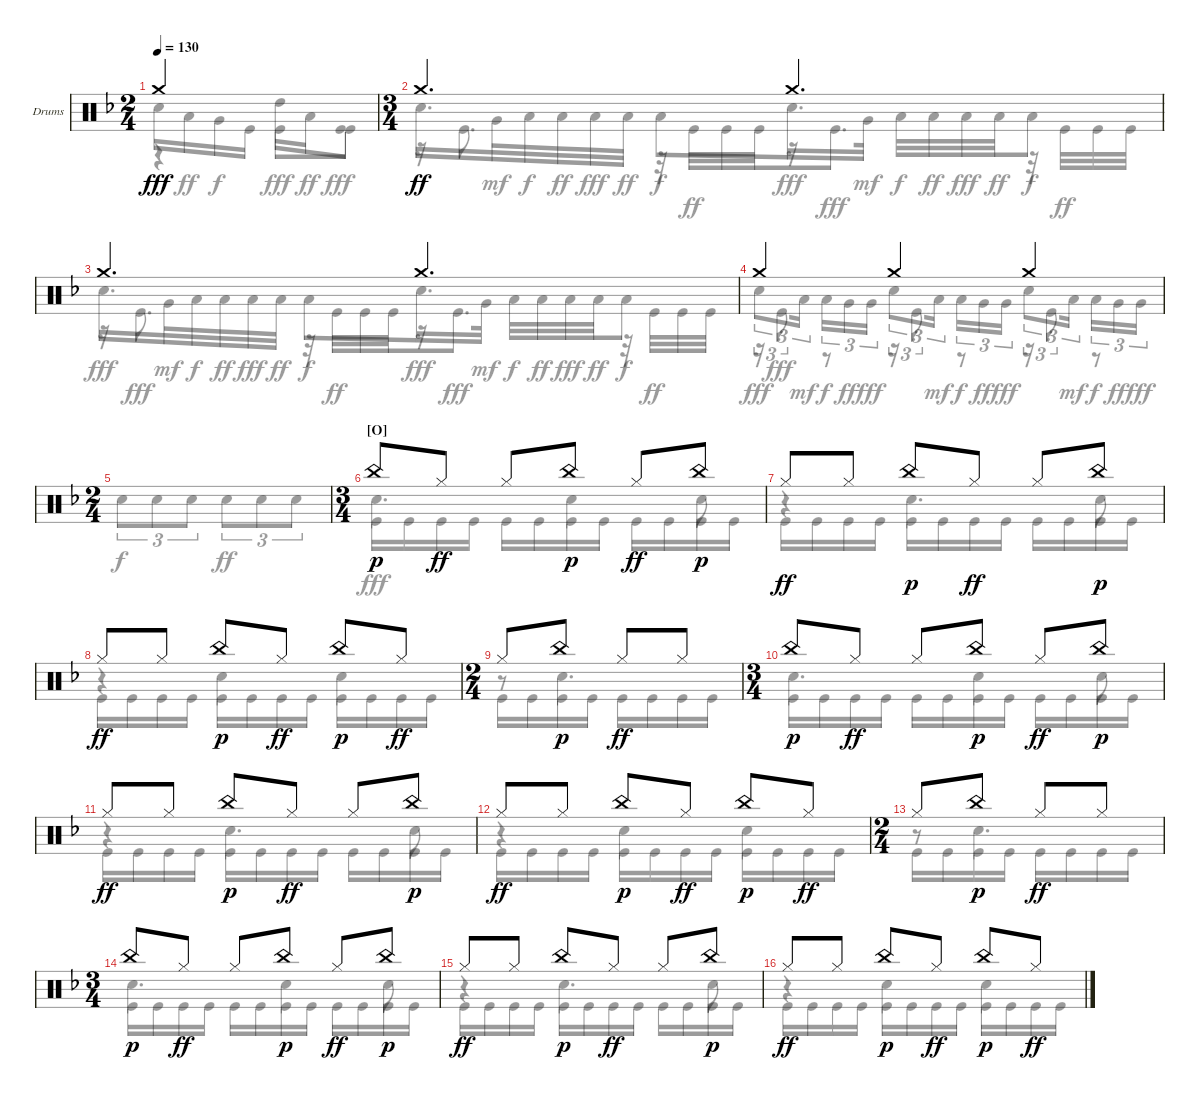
\defaultSystemsLayout 4
\bracketExtendMode groupsimilarinstruments
\firstSystemTrackNameOrientation horizontal
\otherSystemsTrackNameOrientation horizontal
\track ("Drumkit" "Drums") {instrument percussion}
\staff {score}
\articulation defaults
\voice
\ts (2 4)
\tempo 130
\clef neutral
\ks f "Crash medium (hit)".2{dy fff}
|
\ts (3 4)
"Crash medium (hit)".4{d dy ff} "Crash medium (hit)".4{d} |
"Crash medium (hit)".4{d} "Crash medium (hit)".4{d} |
"Crash medium (hit)".4 "Crash medium (hit)".4 "Crash medium (hit)".4 |
\ts (2 4)
|
\ts (3 4)
\section ("O" "")
"China (hit)".8{dy p} "Hi-Hat (closed)".8{dy ff} "Hi-Hat (closed)".8 "China (hit)".8{dy p} "Hi-Hat (closed)".8{dy ff} "China (hit)".8{dy p} |
"Hi-Hat (closed)".8{dy ff} "Hi-Hat (closed)".8 "China (hit)".8{dy p} "Hi-Hat (closed)".8{dy ff} "Hi-Hat (closed)".8 "China (hit)".8{dy p} |
"Hi-Hat (closed)".8{dy ff} "Hi-Hat (closed)".8 "China (hit)".8{dy p} "Hi-Hat (closed)".8{dy ff} "China (hit)".8{dy p} "Hi-Hat (closed)".8{dy ff} |
\ts (2 4)
"Hi-Hat (closed)".8 "China (hit)".8{dy p} "Hi-Hat (closed)".8{dy ff} "Hi-Hat (closed)".8 |
\ts (3 4)
"China (hit)".8{dy p} "Hi-Hat (closed)".8{dy ff} "Hi-Hat (closed)".8 "China (hit)".8{dy p} "Hi-Hat (closed)".8{dy ff} "China (hit)".8{dy p} |
"Hi-Hat (closed)".8{dy ff} "Hi-Hat (closed)".8 "China (hit)".8{dy p} "Hi-Hat (closed)".8{dy ff} "Hi-Hat (closed)".8 "China (hit)".8{dy p} |
"Hi-Hat (closed)".8{dy ff} "Hi-Hat (closed)".8 "China (hit)".8{dy p} "Hi-Hat (closed)".8{dy ff} "China (hit)".8{dy p} "Hi-Hat (closed)".8{dy ff} |
\ts (2 4)
"Hi-Hat (closed)".8 "China (hit)".8{dy p} "Hi-Hat (closed)".8{dy ff} "Hi-Hat (closed)".8 |
\ts (3 4)
"China (hit)".8{dy p} "Hi-Hat (closed)".8{dy ff} "Hi-Hat (closed)".8 "China (hit)".8{dy p} "Hi-Hat (closed)".8{dy ff} "China (hit)".8{dy p} |
"Hi-Hat (closed)".8{dy ff} "Hi-Hat (closed)".8 "China (hit)".8{dy p} "Hi-Hat (closed)".8{dy ff} "Hi-Hat (closed)".8 "China (hit)".8{dy p} |
"Hi-Hat (closed)".8{dy ff} "Hi-Hat (closed)".8 "China (hit)".8{dy p} "Hi-Hat (closed)".8{dy ff} "China (hit)".8{dy p} "Hi-Hat (closed)".8{dy ff}
\voice
\clef neutral
\ottava regular
\simile none
\ks f "Snare (hit) 2".16{dy fff} "Low Tom (hit)".16{dy ff} "Very Low Tom (hit)".16{dy f} "Kick (hit)".16 "High Tom (hit)".16{dy fff} "Low Tom (hit)".16{dy ff} "Kick (hit)".8{dy fff}
|
"Snare (hit) 2".16{d} "Very Low Tom (hit)".32{dy mf} "Low Tom (hit)".32{dy f} "Low Tom (hit)".32{dy ff} "Low Tom (hit)".32{dy fff} "Low Tom (hit)".32{dy ff} "Low Tom (hit)".8{dy f} "Snare (hit) 2".16{d dy fff} "Very Low Tom (hit)".32{dy mf} "Low Tom (hit)".32{dy f} "Low Tom (hit)".32{dy ff} "Low Tom (hit)".32{dy fff} "Low Tom (hit)".32{dy ff} "Low Tom (hit)".8{dy f} |
"Snare (hit) 2".16{d dy fff} "Very Low Tom (hit)".32{dy mf} "Low Tom (hit)".32{dy f} "Low Tom (hit)".32{dy ff} "Low Tom (hit)".32{dy fff} "Low Tom (hit)".32{dy ff} "Low Tom (hit)".8{dy f} "Snare (hit) 2".16{d dy fff} "Very Low Tom (hit)".32{dy mf} "Low Tom (hit)".32{dy f} "Low Tom (hit)".32{dy ff} "Low Tom (hit)".32{dy fff} "Low Tom (hit)".32{dy ff} "Low Tom (hit)".8{dy f} |
"Snare (hit) 2".8{tu (3 2) dy fff} "Low Tom (hit)".16{tu (3 2) dy mf} "Low Tom (hit)".16{tu (3 2) dy f} "Very Low Tom (hit)".16{tu (3 2) dy ff} "Very Low Tom (hit)".16{tu (3 2) dy fff} "Snare (hit) 2".8{tu (3 2)} "Low Tom (hit)".16{tu (3 2) dy mf} "Low Tom (hit)".16{tu (3 2) dy f} "Very Low Tom (hit)".16{tu (3 2) dy ff} "Very Low Tom (hit)".16{tu (3 2) dy fff} "Snare (hit) 2".8{tu (3 2)} "Low Tom (hit)".16{tu (3 2) dy mf} "Low Tom (hit)".16{tu (3 2) dy f} "Very Low Tom (hit)".16{tu (3 2) dy ff} "Very Low Tom (hit)".16{tu (3 2) dy fff} |
"Snare (hit) 2".8{tu (3 2) dy f} "Snare (hit) 2".8{tu (3 2)} "Snare (hit) 2".8{tu (3 2)} "Snare (hit) 2".8{tu (3 2) dy ff} "Snare (hit) 2".8{tu (3 2)} "Snare (hit) 2".8{tu (3 2)} |
"Snare (hit) 2".4{d dy fff} "Snare (hit) 2".4 "Snare (hit) 2".8 |
r.4 "Snare (hit) 2".4{d} "Snare (hit) 2".8 |
r.4 "Snare (hit) 2".4 "Snare (hit) 2".4 |
r.8 "Snare (hit) 2".4{d} |
"Snare (hit) 2".4{d} "Snare (hit) 2".4 "Snare (hit) 2".8 |
r.4 "Snare (hit) 2".4{d} "Snare (hit) 2".8 |
r.4 "Snare (hit) 2".4 "Snare (hit) 2".4 |
r.8 "Snare (hit) 2".4{d} |
"Snare (hit) 2".4{d} "Snare (hit) 2".4 "Snare (hit) 2".8 |
r.4 "Snare (hit) 2".4{d} "Snare (hit) 2".8 |
r.4 "Snare (hit) 2".4 "Snare (hit) 2".4
\voice
\clef neutral
\ottava regular
\simile none
\ks f
r.4{dy ff} "Kick (hit)".8{dy fff} "Kick (hit)".8 |
r.16 "Kick (hit)".8{d} r.32 "Kick (hit)".32{dy ff} "Kick (hit)".32 "Kick (hit)".32 r.16 "Kick (hit)".8{d dy fff} r.32 "Kick (hit)".32{dy ff} "Kick (hit)".32 "Kick (hit)".32 |
r.16 "Kick (hit)".8{d dy fff} r.32 "Kick (hit)".32{dy ff} "Kick (hit)".32 "Kick (hit)".32 r.16 "Kick (hit)".8{d dy fff} r.32 "Kick (hit)".32{dy ff} "Kick (hit)".32 "Kick (hit)".32 |
r.16{tu (3 2)} "Kick (hit)".8{tu (3 2) dy fff} r.8 r.16{tu (3 2)} "Kick (hit)".8{tu (3 2)} r.8 r.16{tu (3 2)} "Kick (hit)".8{tu (3 2)} r.8 |
|
"Kick (hit)".16 "Kick (hit)".16 "Kick (hit)".16 "Kick (hit)".16 "Kick (hit)".16 "Kick (hit)".16 "Kick (hit)".16 "Kick (hit)".16 "Kick (hit)".16 "Kick (hit)".16 "Kick (hit)".16 "Kick (hit)".16 |
"Kick (hit)".16 "Kick (hit)".16 "Kick (hit)".16 "Kick (hit)".16 "Kick (hit)".16 "Kick (hit)".16 "Kick (hit)".16 "Kick (hit)".16 "Kick (hit)".16 "Kick (hit)".16 "Kick (hit)".16 "Kick (hit)".16 |
"Kick (hit)".16 "Kick (hit)".16 "Kick (hit)".16 "Kick (hit)".16 "Kick (hit)".16 "Kick (hit)".16 "Kick (hit)".16 "Kick (hit)".16 "Kick (hit)".16 "Kick (hit)".16 "Kick (hit)".16 "Kick (hit)".16 |
"Kick (hit)".16 "Kick (hit)".16 "Kick (hit)".16 "Kick (hit)".16 "Kick (hit)".16 "Kick (hit)".16 "Kick (hit)".16 "Kick (hit)".16 |
"Kick (hit)".16 "Kick (hit)".16 "Kick (hit)".16 "Kick (hit)".16 "Kick (hit)".16 "Kick (hit)".16 "Kick (hit)".16 "Kick (hit)".16 "Kick (hit)".16 "Kick (hit)".16 "Kick (hit)".16 "Kick (hit)".16 |
"Kick (hit)".16 "Kick (hit)".16 "Kick (hit)".16 "Kick (hit)".16 "Kick (hit)".16 "Kick (hit)".16 "Kick (hit)".16 "Kick (hit)".16 "Kick (hit)".16 "Kick (hit)".16 "Kick (hit)".16 "Kick (hit)".16 |
"Kick (hit)".16 "Kick (hit)".16 "Kick (hit)".16 "Kick (hit)".16 "Kick (hit)".16 "Kick (hit)".16 "Kick (hit)".16 "Kick (hit)".16 "Kick (hit)".16 "Kick (hit)".16 "Kick (hit)".16 "Kick (hit)".16 |
"Kick (hit)".16 "Kick (hit)".16 "Kick (hit)".16 "Kick (hit)".16 "Kick (hit)".16 "Kick (hit)".16 "Kick (hit)".16 "Kick (hit)".16 |
"Kick (hit)".16 "Kick (hit)".16 "Kick (hit)".16 "Kick (hit)".16 "Kick (hit)".16 "Kick (hit)".16 "Kick (hit)".16 "Kick (hit)".16 "Kick (hit)".16 "Kick (hit)".16 "Kick (hit)".16 "Kick (hit)".16 |
"Kick (hit)".16 "Kick (hit)".16 "Kick (hit)".16 "Kick (hit)".16 "Kick (hit)".16 "Kick (hit)".16 "Kick (hit)".16 "Kick (hit)".16 "Kick (hit)".16 "Kick (hit)".16 "Kick (hit)".16 "Kick (hit)".16 |
"Kick (hit)".16 "Kick (hit)".16 "Kick (hit)".16 "Kick (hit)".16 "Kick (hit)".16 "Kick (hit)".16 "Kick (hit)".16 "Kick (hit)".16 "Kick (hit)".16 "Kick (hit)".16 "Kick (hit)".16 "Kick (hit)".16
